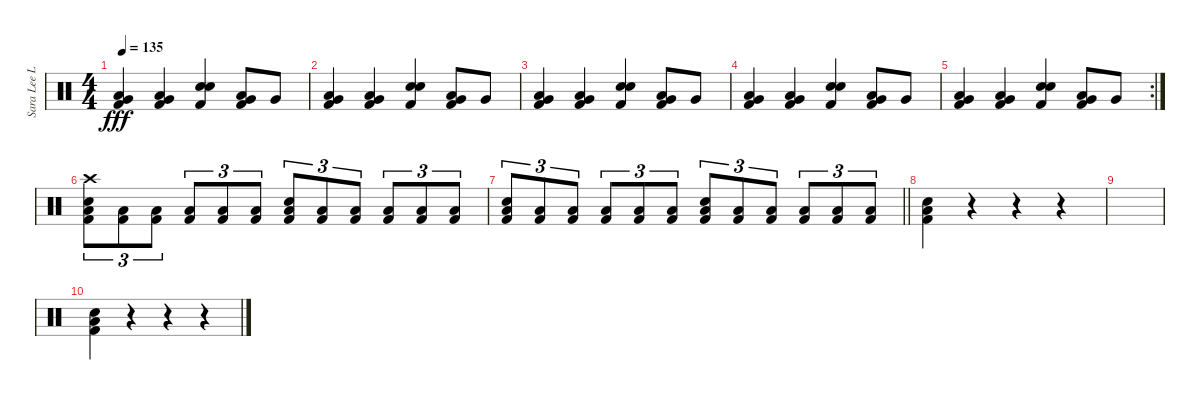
\track ("Sara Lee Lucas" "Sara Lee L") {instrument percussion}
\staff {score}
\articulation defaults
\ts (4 4)
\tempo 135
\clef neutral
\ks c
("Very Low Tom (hit)" "Low Tom (hit)" "Kick (hit) 2").4{dy fff} ("Very Low Tom (hit)" "Low Tom (hit)" "Kick (hit) 2").4 ("Snare (hit) 2" "Electric Snare (hit)" "Kick (hit) 2").4 ("Very Low Tom (hit)" "Low Tom (hit)" "Kick (hit) 2").8 "Very Low Tom (hit)".8 |
("Very Low Tom (hit)" "Low Tom (hit)" "Kick (hit) 2").4 ("Very Low Tom (hit)" "Low Tom (hit)" "Kick (hit) 2").4 ("Snare (hit) 2" "Electric Snare (hit)" "Kick (hit) 2").4 ("Very Low Tom (hit)" "Low Tom (hit)" "Kick (hit) 2").8 "Very Low Tom (hit)".8 |
("Very Low Tom (hit)" "Low Tom (hit)" "Kick (hit) 2").4 ("Very Low Tom (hit)" "Low Tom (hit)" "Kick (hit) 2").4 ("Snare (hit) 2" "Electric Snare (hit)" "Kick (hit) 2").4 ("Very Low Tom (hit)" "Low Tom (hit)" "Kick (hit) 2").8 "Very Low Tom (hit)".8 |
("Very Low Tom (hit)" "Low Tom (hit)" "Kick (hit) 2").4 ("Very Low Tom (hit)" "Low Tom (hit)" "Kick (hit) 2").4 ("Snare (hit) 2" "Electric Snare (hit)" "Kick (hit) 2").4 ("Very Low Tom (hit)" "Low Tom (hit)" "Kick (hit) 2").8 "Very Low Tom (hit)".8 |
\rc 2
("Very Low Tom (hit)" "Low Tom (hit)" "Kick (hit) 2").4 ("Very Low Tom (hit)" "Low Tom (hit)" "Kick (hit) 2").4 ("Snare (hit) 2" "Electric Snare (hit)" "Kick (hit) 2").4 ("Very Low Tom (hit)" "Low Tom (hit)" "Kick (hit) 2").8 "Very Low Tom (hit)".8 |
("Crash high (hit)" "Snare (hit) 2" "Low Tom (hit)" "Kick (hit) 2").8{tu (3 2)} ("Low Tom (hit)" "Kick (hit) 2").8{tu (3 2)} ("Low Tom (hit)" "Kick (hit) 2").8{tu (3 2)} ("Low Tom (hit)" "Kick (hit) 2").8{tu (3 2)} ("Low Tom (hit)" "Kick (hit) 2").8{tu (3 2)} ("Low Tom (hit)" "Kick (hit) 2").8{tu (3 2)} ("Snare (hit) 2" "Low Tom (hit)" "Kick (hit) 2").8{tu (3 2)} ("Low Tom (hit)" "Kick (hit) 2").8{tu (3 2)} ("Low Tom (hit)" "Kick (hit) 2").8{tu (3 2)} ("Low Tom (hit)" "Kick (hit) 2").8{tu (3 2)} ("Low Tom (hit)" "Kick (hit) 2").8{tu (3 2)} ("Low Tom (hit)" "Kick (hit) 2").8{tu (3 2)} |
\barLineRight lightlight
("Snare (hit) 2" "Low Tom (hit)" "Kick (hit) 2").8{tu (3 2)} ("Low Tom (hit)" "Kick (hit) 2").8{tu (3 2)} ("Low Tom (hit)" "Kick (hit) 2").8{tu (3 2)} ("Low Tom (hit)" "Kick (hit) 2").8{tu (3 2)} ("Low Tom (hit)" "Kick (hit) 2").8{tu (3 2)} ("Low Tom (hit)" "Kick (hit) 2").8{tu (3 2)} ("Snare (hit) 2" "Low Tom (hit)" "Kick (hit) 2").8{tu (3 2)} ("Low Tom (hit)" "Kick (hit) 2").8{tu (3 2)} ("Low Tom (hit)" "Kick (hit) 2").8{tu (3 2)} ("Low Tom (hit)" "Kick (hit) 2").8{tu (3 2)} ("Low Tom (hit)" "Kick (hit) 2").8{tu (3 2)} ("Low Tom (hit)" "Kick (hit) 2").8{tu (3 2)} |
("Snare (hit) 2" "Low Tom (hit)" "Kick (hit) 2").4 r.4 r.4 r.4 |
|
("Snare (hit) 2" "Low Tom (hit)" "Kick (hit) 2").4 r.4 r.4 r.4
